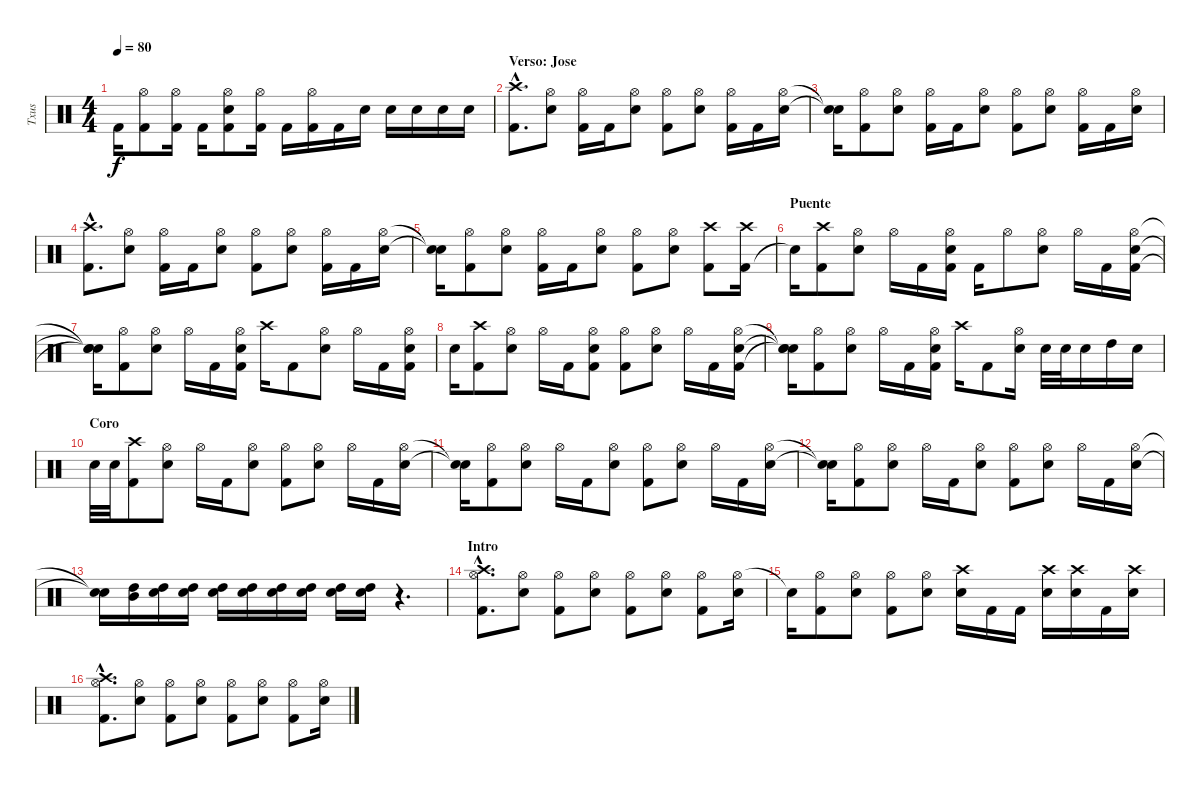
\track ("Txus" "Txus") {instrument percussion}
\staff {score}
\articulation defaults
\ts (4 4)
\tempo 80
\clef neutral
\ks c "Kick (hit) 2".16{dy f}
("Kick (hit) 2" "Hi-Hat (open)").8 ("Kick (hit) 2" "Hi-Hat (open)").16 "Kick (hit) 2".16 ("Kick (hit) 2" "Hi-Hat (open)" "Electric Snare (hit)").8 ("Kick (hit) 2" "Hi-Hat (open)").16 "Kick (hit) 2".16 ("Kick (hit) 2" "Hi-Hat (open)").16 "Kick (hit) 2".16 "Electric Snare (hit)".16 "Electric Snare (hit)".16 "Electric Snare (hit)".16 "Electric Snare (hit)".16 "Electric Snare (hit)".16 |
\section ("" "Verso: Jose")
("Kick (hit) 2"{hac} "Crash high (hit)"{hac}).8{d} ("Electric Snare (hit)" "Hi-Hat (open)").8 ("Kick (hit) 2" "Hi-Hat (open)").16 "Kick (hit) 2".16 ("Electric Snare (hit)" "Hi-Hat (open)").8 ("Kick (hit) 2" "Hi-Hat (open)").8 ("Electric Snare (hit)" "Hi-Hat (open)").8 ("Kick (hit) 2" "Hi-Hat (open)").16 "Kick (hit) 2".16 ("Electric Snare (hit)" "Hi-Hat (open)").16 |
("Snare (hit)"{t} "Snare (hit)"{t}).16 ("Kick (hit) 2" "Hi-Hat (open)").8 ("Electric Snare (hit)" "Hi-Hat (open)").8 ("Kick (hit) 2" "Hi-Hat (open)").16 "Kick (hit) 2".16 ("Electric Snare (hit)" "Hi-Hat (open)").8 ("Kick (hit) 2" "Hi-Hat (open)").8 ("Electric Snare (hit)" "Hi-Hat (open)").8 ("Kick (hit) 2" "Hi-Hat (open)").16 "Kick (hit) 2".16 ("Electric Snare (hit)" "Hi-Hat (open)").16 |
("Kick (hit) 2"{hac} "Crash high (hit)"{hac}).8{d} ("Electric Snare (hit)" "Hi-Hat (open)").8 ("Kick (hit) 2" "Hi-Hat (open)").16 "Kick (hit) 2".16 ("Electric Snare (hit)" "Hi-Hat (open)").8 ("Kick (hit) 2" "Hi-Hat (open)").8 ("Electric Snare (hit)" "Hi-Hat (open)").8 ("Kick (hit) 2" "Hi-Hat (open)").16 "Kick (hit) 2".16 ("Electric Snare (hit)" "Hi-Hat (open)").16 |
("Snare (hit)"{t} "Snare (hit)"{t}).16 ("Kick (hit) 2" "Hi-Hat (open)").8 ("Electric Snare (hit)" "Hi-Hat (open)").8 ("Kick (hit) 2" "Hi-Hat (open)").16 "Kick (hit) 2".16 ("Electric Snare (hit)" "Hi-Hat (open)").8 ("Kick (hit) 2" "Hi-Hat (open)").8 ("Electric Snare (hit)" "Hi-Hat (open)").8 ("Kick (hit) 2" "Crash high (hit)").8 ("Kick (hit) 2" "Crash high (hit)").16 |
\section ("" "Puente")
"Snare (hit)"{t}.16 ("Kick (hit) 2" "Crash high (hit)").8 ("Electric Snare (hit)" "Hi-Hat (open)").8 "Hi-Hat (open)".16 "Kick (hit) 2".16 ("Kick (hit) 2" "Hi-Hat (open)" "Electric Snare (hit)").16 "Kick (hit) 2".16 "Hi-Hat (open)".8 ("Hi-Hat (open)" "Electric Snare (hit)").8 "Hi-Hat (open)".16 "Kick (hit) 2".16 ("Kick (hit) 2" "Hi-Hat (open)" "Electric Snare (hit)").16 |
("Snare (hit)"{t} "Snare (hit)"{t} "Snare (hit)"{t}).16 ("Kick (hit) 2" "Hi-Hat (open)").8 ("Hi-Hat (open)" "Electric Snare (hit)").8 "Hi-Hat (open)".16 "Kick (hit) 2".16 ("Kick (hit) 2" "Hi-Hat (open)" "Electric Snare (hit)").16 "Crash high (hit)".16 "Kick (hit) 2".8 ("Hi-Hat (open)" "Electric Snare (hit)").8 "Hi-Hat (open)".16 "Kick (hit) 2".16 ("Kick (hit) 2" "Hi-Hat (open)" "Electric Snare (hit)").16 |
"Electric Snare (hit)".16 ("Kick (hit) 2" "Crash high (hit)").8 ("Hi-Hat (open)" "Electric Snare (hit)").8 "Hi-Hat (open)".16 "Kick (hit) 2".16 ("Kick (hit) 2" "Hi-Hat (open)" "Electric Snare (hit)").8 ("Kick (hit) 2" "Hi-Hat (open)").8 ("Hi-Hat (open)" "Electric Snare (hit)").8 "Hi-Hat (open)".16 "Kick (hit) 2".16 ("Kick (hit) 2" "Hi-Hat (open)" "Electric Snare (hit)").16 |
("Snare (hit)"{t} "Snare (hit)"{t} "Electric Snare (hit)"{t}).16 ("Kick (hit) 2" "Hi-Hat (open)").8 ("Hi-Hat (open)" "Electric Snare (hit)").8 "Hi-Hat (open)".16 "Kick (hit) 2".16 ("Kick (hit) 2" "Hi-Hat (open)" "Electric Snare (hit)").16 "Crash high (hit)".16 "Kick (hit) 2".8 ("Hi-Hat (open)" "Electric Snare (hit)").16 "Electric Snare (hit)".32 "Electric Snare (hit)".32 "Electric Snare (hit)".16 "High Tom (hit)".16 "Electric Snare (hit)".16 |
\section ("" "Coro")
"Electric Snare (hit)".32 "Electric Snare (hit)".32 ("Kick (hit) 2" "Crash high (hit)").8 ("Electric Snare (hit)" "Hi-Hat (open)").8 "Hi-Hat (open)".16 "Kick (hit) 2".16 ("Electric Snare (hit)" "Hi-Hat (open)").8 ("Kick (hit) 2" "Hi-Hat (open)").8 ("Electric Snare (hit)" "Hi-Hat (open)").8 "Hi-Hat (open)".16 "Kick (hit) 2".16 ("Electric Snare (hit)" "Hi-Hat (open)").16 |
("Snare (hit)"{t} "Snare (hit)"{t}).16 ("Kick (hit) 2" "Hi-Hat (open)").8 ("Electric Snare (hit)" "Hi-Hat (open)").8 "Hi-Hat (open)".16 "Kick (hit) 2".16 ("Electric Snare (hit)" "Hi-Hat (open)").8 ("Kick (hit) 2" "Hi-Hat (open)").8 ("Electric Snare (hit)" "Hi-Hat (open)").8 "Hi-Hat (open)".16 "Kick (hit) 2".16 ("Electric Snare (hit)" "Hi-Hat (open)").16 |
("Snare (hit)"{t} "Snare (hit)"{t}).16 ("Kick (hit) 2" "Hi-Hat (open)").8 ("Electric Snare (hit)" "Hi-Hat (open)").8 "Hi-Hat (open)".16 "Kick (hit) 2".16 ("Electric Snare (hit)" "Hi-Hat (open)").8 ("Kick (hit) 2" "Hi-Hat (open)").8 ("Electric Snare (hit)" "Hi-Hat (open)").8 "Hi-Hat (open)".16 "Kick (hit) 2".16 ("Electric Snare (hit)" "Hi-Hat (open)").16 |
("Snare (hit)"{t} "Snare (hit)"{t}).16 ("High Tom (hit)" "Mid Tom (hit)").16 ("High Tom (hit)" "Electric Snare (hit)").16 ("High Tom (hit)" "Electric Snare (hit)").16 ("High Tom (hit)" "Electric Snare (hit)").16 ("High Tom (hit)" "Electric Snare (hit)").16 ("High Tom (hit)" "Electric Snare (hit)").16 ("High Tom (hit)" "Electric Snare (hit)").16 ("High Tom (hit)" "Electric Snare (hit)").16 ("High Tom (hit)" "Electric Snare (hit)").16 r.4{d} |
\section ("" "Intro")
("Hi-Hat (open)"{hac} "Kick (hit) 2"{hac} "Crash high (hit)"{hac}).8{d} ("Hi-Hat (open)" "Electric Snare (hit)").8 ("Hi-Hat (open)" "Kick (hit) 2").8 ("Hi-Hat (open)" "Electric Snare (hit)").8 ("Hi-Hat (open)" "Kick (hit) 2").8 ("Hi-Hat (open)" "Electric Snare (hit)").8 ("Hi-Hat (open)" "Kick (hit) 2").8 ("Hi-Hat (open)" "Electric Snare (hit)").16 |
"Snare (hit)"{t}.16 ("Hi-Hat (open)" "Kick (hit) 2").8 ("Hi-Hat (open)" "Electric Snare (hit)").8 ("Hi-Hat (open)" "Kick (hit) 2").8 ("Hi-Hat (open)" "Electric Snare (hit)").8 ("Crash high (hit)" "Electric Snare (hit)").16 "Kick (hit) 2".16 "Kick (hit) 2".16 ("Electric Snare (hit)" "Crash high (hit)").16 ("Electric Snare (hit)" "Crash high (hit)").16 "Kick (hit) 2".16 ("Electric Snare (hit)" "Crash high (hit)").16 |
("Hi-Hat (open)"{hac} "Kick (hit) 2"{hac} "Crash high (hit)"{hac}).8{d} ("Hi-Hat (open)" "Electric Snare (hit)").8 ("Hi-Hat (open)" "Kick (hit) 2").8 ("Hi-Hat (open)" "Electric Snare (hit)").8 ("Hi-Hat (open)" "Kick (hit) 2").8 ("Hi-Hat (open)" "Electric Snare (hit)").8 ("Hi-Hat (open)" "Kick (hit) 2").8 ("Hi-Hat (open)" "Electric Snare (hit)").16
